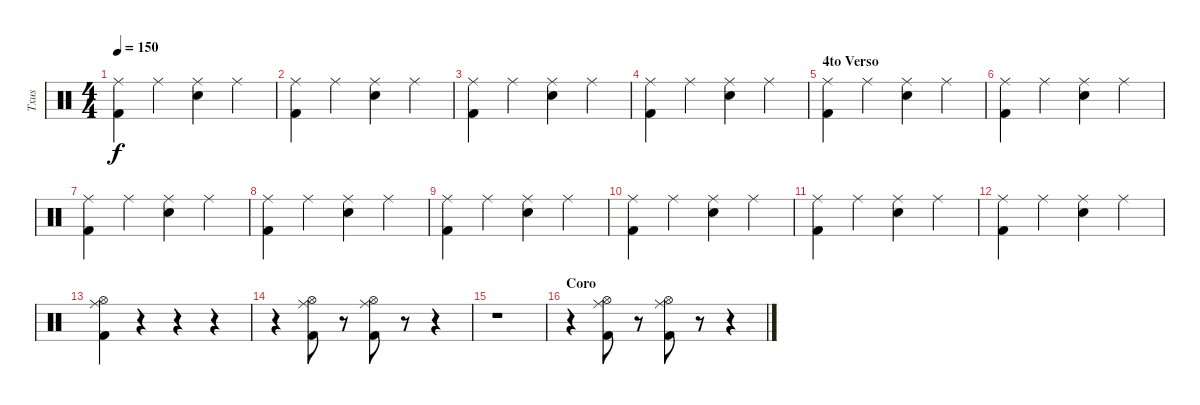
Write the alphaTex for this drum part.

\track ("Txus" "Txus") {instrument percussion}
\staff {score}
\articulation defaults
\ts (4 4)
\tempo 150
\clef neutral
\ks c
("Ride (middle)" "Kick (hit) 2").4{dy f} "Ride (middle)".4 ("Snare (hit) 2" "Ride (middle)").4 "Ride (middle)".4 |
("Ride (middle)" "Kick (hit) 2").4 "Ride (middle)".4 ("Snare (hit) 2" "Ride (middle)").4 "Ride (middle)".4 |
("Ride (middle)" "Kick (hit) 2").4 "Ride (middle)".4 ("Snare (hit) 2" "Ride (middle)").4 "Ride (middle)".4 |
("Ride (middle)" "Kick (hit) 2").4 "Ride (middle)".4 ("Snare (hit) 2" "Ride (middle)").4 "Ride (middle)".4 |
\section ("" "4to Verso")
("Ride (middle)" "Kick (hit) 2").4 "Ride (middle)".4 ("Snare (hit) 2" "Ride (middle)").4 "Ride (middle)".4 |
("Ride (middle)" "Kick (hit) 2").4 "Ride (middle)".4 ("Snare (hit) 2" "Ride (middle)").4 "Ride (middle)".4 |
("Ride (middle)" "Kick (hit) 2").4 "Ride (middle)".4 ("Snare (hit) 2" "Ride (middle)").4 "Ride (middle)".4 |
("Ride (middle)" "Kick (hit) 2").4 "Ride (middle)".4 ("Snare (hit) 2" "Ride (middle)").4 "Ride (middle)".4 |
("Ride (middle)" "Kick (hit) 2").4 "Ride (middle)".4 ("Snare (hit) 2" "Ride (middle)").4 "Ride (middle)".4 |
("Ride (middle)" "Kick (hit) 2").4 "Ride (middle)".4 ("Snare (hit) 2" "Ride (middle)").4 "Ride (middle)".4 |
("Ride (middle)" "Kick (hit) 2").4 "Ride (middle)".4 ("Snare (hit) 2" "Ride (middle)").4 "Ride (middle)".4 |
("Ride (middle)" "Kick (hit) 2").4 "Ride (middle)".4 ("Snare (hit) 2" "Ride (middle)").4 "Ride (middle)".4 |
("Ride (middle)" "Kick (hit) 2" "Hi-Hat (open)").4 r.4 r.4 r.4 |
r.4 ("Ride (middle)" "Kick (hit) 2" "Hi-Hat (open)").8 r.8 ("Ride (middle)" "Kick (hit) 2" "Hi-Hat (open)").8 r.8 r.4 |
r.1 |
\section ("" "Coro")
r.4 ("Ride (middle)" "Kick (hit) 2" "Hi-Hat (open)").8 r.8 ("Ride (middle)" "Kick (hit) 2" "Hi-Hat (open)").8 r.8 r.4
